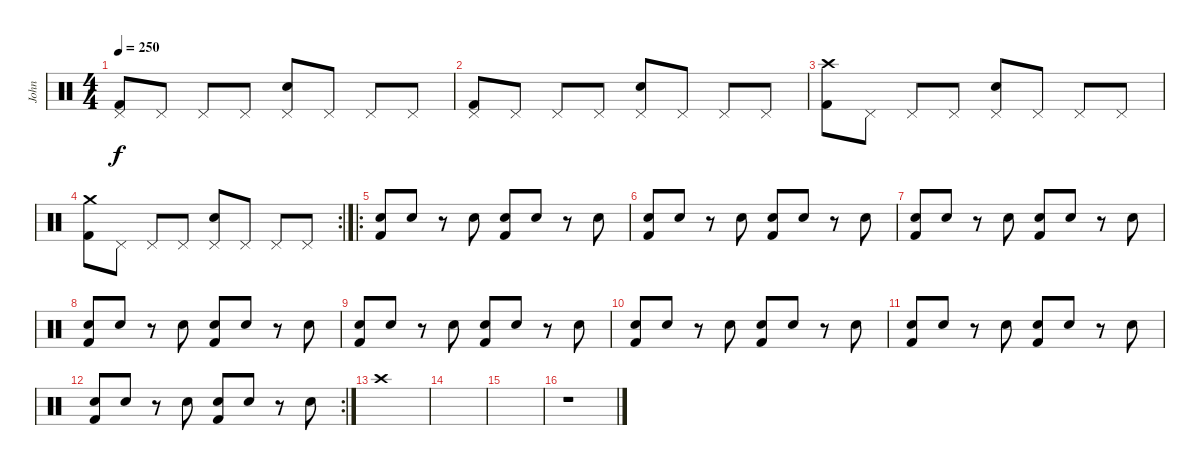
\track ("John" "John") {instrument percussion}
\staff {score}
\articulation defaults
\ts (4 4)
\tempo 250
\clef neutral
\ks c
("Pedal Hi-Hat (hit)" "Kick (hit) 2").8{dy f} "Pedal Hi-Hat (hit)".8 "Pedal Hi-Hat (hit)".8 "Pedal Hi-Hat (hit)".8 ("Pedal Hi-Hat (hit)" "Electric Snare (hit)").8 "Pedal Hi-Hat (hit)".8 "Pedal Hi-Hat (hit)".8 "Pedal Hi-Hat (hit)".8 |
("Pedal Hi-Hat (hit)" "Kick (hit) 2").8 "Pedal Hi-Hat (hit)".8 "Pedal Hi-Hat (hit)".8 "Pedal Hi-Hat (hit)".8 ("Pedal Hi-Hat (hit)" "Electric Snare (hit)").8 "Pedal Hi-Hat (hit)".8 "Pedal Hi-Hat (hit)".8 "Pedal Hi-Hat (hit)".8 |
("Crash high (hit)" "Kick (hit) 2").8 "Pedal Hi-Hat (hit)".8 "Pedal Hi-Hat (hit)".8 "Pedal Hi-Hat (hit)".8 ("Pedal Hi-Hat (hit)" "Electric Snare (hit)").8 "Pedal Hi-Hat (hit)".8 "Pedal Hi-Hat (hit)".8 "Pedal Hi-Hat (hit)".8 |
\rc 2
("Crash medium (hit)" "Kick (hit) 2").8 "Pedal Hi-Hat (hit)".8 "Pedal Hi-Hat (hit)".8 "Pedal Hi-Hat (hit)".8 ("Pedal Hi-Hat (hit)" "Electric Snare (hit)").8 "Pedal Hi-Hat (hit)".8 "Pedal Hi-Hat (hit)".8 "Pedal Hi-Hat (hit)".8 |
\ro
("Electric Snare (hit)" "Kick (hit) 2").8 "Electric Snare (hit)".8 r.8 "Electric Snare (hit)".8 ("Electric Snare (hit)" "Kick (hit) 2").8 "Electric Snare (hit)".8 r.8 "Electric Snare (hit)".8 |
("Electric Snare (hit)" "Kick (hit) 2").8 "Electric Snare (hit)".8 r.8 "Electric Snare (hit)".8 ("Electric Snare (hit)" "Kick (hit) 2").8 "Electric Snare (hit)".8 r.8 "Electric Snare (hit)".8 |
("Electric Snare (hit)" "Kick (hit) 2").8 "Electric Snare (hit)".8 r.8 "Electric Snare (hit)".8 ("Electric Snare (hit)" "Kick (hit) 2").8 "Electric Snare (hit)".8 r.8 "Electric Snare (hit)".8 |
("Electric Snare (hit)" "Kick (hit) 2").8 "Electric Snare (hit)".8 r.8 "Electric Snare (hit)".8 ("Electric Snare (hit)" "Kick (hit) 2").8 "Electric Snare (hit)".8 r.8 "Electric Snare (hit)".8 |
("Electric Snare (hit)" "Kick (hit) 2").8 "Electric Snare (hit)".8 r.8 "Electric Snare (hit)".8 ("Electric Snare (hit)" "Kick (hit) 2").8 "Electric Snare (hit)".8 r.8 "Electric Snare (hit)".8 |
("Electric Snare (hit)" "Kick (hit) 2").8 "Electric Snare (hit)".8 r.8 "Electric Snare (hit)".8 ("Electric Snare (hit)" "Kick (hit) 2").8 "Electric Snare (hit)".8 r.8 "Electric Snare (hit)".8 |
("Electric Snare (hit)" "Kick (hit) 2").8 "Electric Snare (hit)".8 r.8 "Electric Snare (hit)".8 ("Electric Snare (hit)" "Kick (hit) 2").8 "Electric Snare (hit)".8 r.8 "Electric Snare (hit)".8 |
\rc 2
("Electric Snare (hit)" "Kick (hit) 2").8 "Electric Snare (hit)".8 r.8 "Electric Snare (hit)".8 ("Electric Snare (hit)" "Kick (hit) 2").8 "Electric Snare (hit)".8 r.8 "Electric Snare (hit)".8 |
"Crash high (hit)".1 |
|
|
r.1
